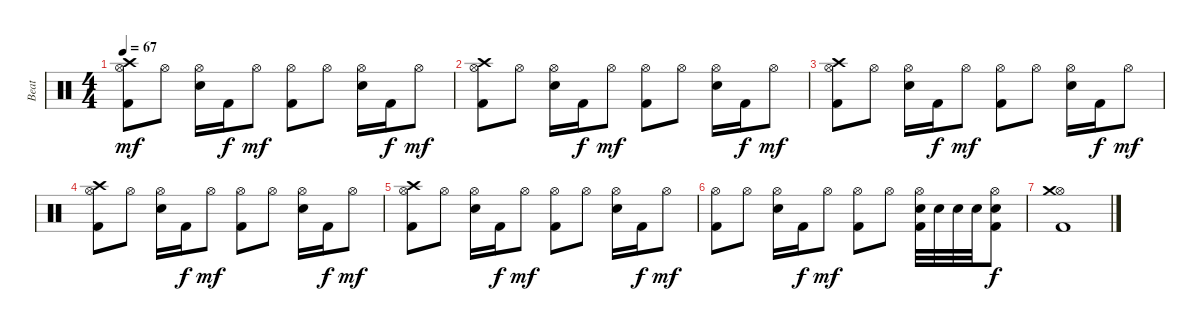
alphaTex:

\track ("Beat" "Beat") {instrument percussion}
\staff {score}
\articulation defaults
\ts (4 4)
\tempo 67
\clef neutral
\ks c
("Crash high (hit)" "Hi-Hat (open)" "Kick (hit) 2").8{dy mf} "Hi-Hat (open)".8 ("Hi-Hat (open)" "Electric Snare (hit)").16 "Kick (hit) 2".16{dy f} "Hi-Hat (open)".8{dy mf} ("Hi-Hat (open)" "Kick (hit) 2").8 "Hi-Hat (open)".8 ("Hi-Hat (open)" "Electric Snare (hit)").16 "Kick (hit) 2".16{dy f} "Hi-Hat (open)".8{dy mf} |
("Crash high (hit)" "Hi-Hat (open)" "Kick (hit) 2").8 "Hi-Hat (open)".8 ("Hi-Hat (open)" "Electric Snare (hit)").16 "Kick (hit) 2".16{dy f} "Hi-Hat (open)".8{dy mf} ("Hi-Hat (open)" "Kick (hit) 2").8 "Hi-Hat (open)".8 ("Hi-Hat (open)" "Electric Snare (hit)").16 "Kick (hit) 2".16{dy f} "Hi-Hat (open)".8{dy mf} |
("Crash high (hit)" "Hi-Hat (open)" "Kick (hit) 2").8 "Hi-Hat (open)".8 ("Hi-Hat (open)" "Electric Snare (hit)").16 "Kick (hit) 2".16{dy f} "Hi-Hat (open)".8{dy mf} ("Hi-Hat (open)" "Kick (hit) 2").8 "Hi-Hat (open)".8 ("Hi-Hat (open)" "Electric Snare (hit)").16 "Kick (hit) 2".16{dy f} "Hi-Hat (open)".8{dy mf} |
("Crash high (hit)" "Hi-Hat (open)" "Kick (hit) 2").8 "Hi-Hat (open)".8 ("Hi-Hat (open)" "Electric Snare (hit)").16 "Kick (hit) 2".16{dy f} "Hi-Hat (open)".8{dy mf} ("Hi-Hat (open)" "Kick (hit) 2").8 "Hi-Hat (open)".8 ("Hi-Hat (open)" "Electric Snare (hit)").16 "Kick (hit) 2".16{dy f} "Hi-Hat (open)".8{dy mf} |
("Crash high (hit)" "Hi-Hat (open)" "Kick (hit) 2").8 "Hi-Hat (open)".8 ("Hi-Hat (open)" "Electric Snare (hit)").16 "Kick (hit) 2".16{dy f} "Hi-Hat (open)".8{dy mf} ("Hi-Hat (open)" "Kick (hit) 2").8 "Hi-Hat (open)".8 ("Hi-Hat (open)" "Electric Snare (hit)").16 "Kick (hit) 2".16{dy f} "Hi-Hat (open)".8{dy mf} |
("Hi-Hat (open)" "Kick (hit) 2").8 "Hi-Hat (open)".8 ("Hi-Hat (open)" "Electric Snare (hit)").16 "Kick (hit) 2".16{dy f} "Hi-Hat (open)".8{dy mf} ("Hi-Hat (open)" "Kick (hit) 2").8 "Hi-Hat (open)".8 ("Hi-Hat (open)" "Electric Snare (hit)" "Kick (hit) 2").32 "Electric Snare (hit)".32 "Electric Snare (hit)".32 "Electric Snare (hit)".32 ("Hi-Hat (open)" "Electric Snare (hit)" "Kick (hit) 2").8{dy f} |
("Hi-Hat (open)" "Crash medium (hit)" "Kick (hit) 2").1
